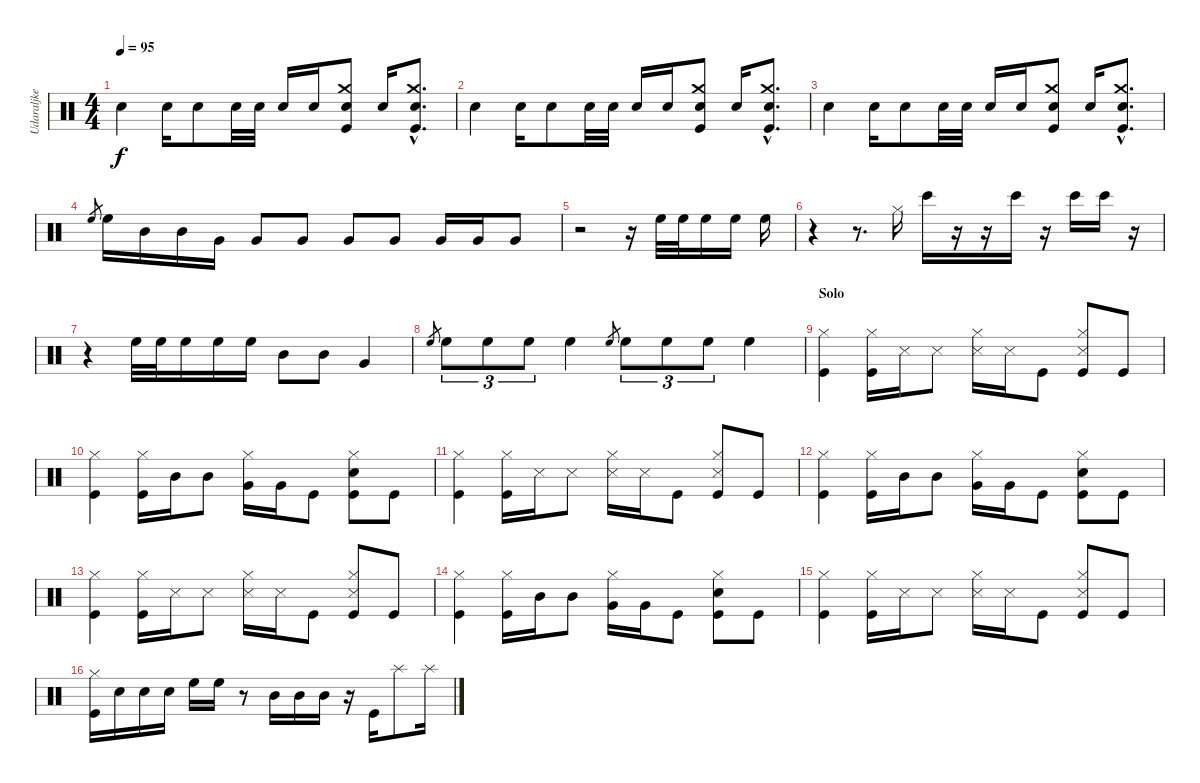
\track ("Udaraljke" "Udaraljke") {instrument percussion}
\staff {score}
\articulation defaults
\ts (4 4)
\tempo 95
\clef neutral
\ks c "Snare (hit) 2".4{dy f} "Snare (hit) 2".16 "Snare (hit) 2".8 "Snare (hit) 2".32 "Snare (hit) 2".32 "Snare (hit) 2".16 "Snare (hit) 2".16
("Crash medium (hit)" "Snare (hit) 2" "Kick (hit)").8 "Snare (hit) 2".16 ("Crash medium (hit)"{hac} "Snare (hit) 2"{hac} "Kick (hit)"{hac}).8{d} |
"Snare (hit) 2".4 "Snare (hit) 2".16 "Snare (hit) 2".8 "Snare (hit) 2".32 "Snare (hit) 2".32 "Snare (hit) 2".16 "Snare (hit) 2".16 ("Crash medium (hit)" "Snare (hit) 2" "Kick (hit)").8 "Snare (hit) 2".16 ("Crash medium (hit)"{hac} "Snare (hit) 2"{hac} "Kick (hit)"{hac}).8{d} |
"Snare (hit) 2".4 "Snare (hit) 2".16 "Snare (hit) 2".8 "Snare (hit) 2".32 "Snare (hit) 2".32 "Snare (hit) 2".16 "Snare (hit) 2".16 ("Crash medium (hit)" "Snare (hit) 2" "Kick (hit)").8 "Snare (hit) 2".16 ("Crash medium (hit)"{hac} "Snare (hit) 2"{hac} "Kick (hit)"{hac}).8{d} |
"High Floor Tom (hit)".8{gr} "High Floor Tom (hit)".16 "Mid Tom (hit)".16 "Mid Tom (hit)".16 "Very Low Tom (hit)".16 "Very Low Tom (hit)".8 "Very Low Tom (hit)".8 "Very Low Tom (hit)".8 "Very Low Tom (hit)".8 "Very Low Tom (hit)".16 "Very Low Tom (hit)".16 "Very Low Tom (hit)".8 |
r.2 r.16 "High Floor Tom (hit)".32 "High Floor Tom (hit)".32 "High Floor Tom (hit)".16 "High Floor Tom (hit)".16 "High Floor Tom (hit)".16 |
r.4 r.8{d} "Hi-Hat (closed)".16 "Bongo High (hit)".16 r.16 r.16 "Bongo High (hit)".16 r.16 "Bongo High (hit)".16 "Bongo High (hit)".16 r.16 |
r.4 "High Floor Tom (hit)".32 "High Floor Tom (hit)".32 "High Floor Tom (hit)".16 "High Floor Tom (hit)".16 "High Floor Tom (hit)".16 "Mid Tom (hit)".8 "Mid Tom (hit)".8 "Very Low Tom (hit)".4 |
"High Floor Tom (hit)".8{gr} "High Floor Tom (hit)".8{tu (3 2)} "High Floor Tom (hit)".8{tu (3 2)} "High Floor Tom (hit)".8{tu (3 2)} "High Floor Tom (hit)".4 "High Floor Tom (hit)".8{gr} "High Floor Tom (hit)".8{tu (3 2)} "High Floor Tom (hit)".8{tu (3 2)} "High Floor Tom (hit)".8{tu (3 2)} "High Floor Tom (hit)".4 |
\section ("" "Solo")
("Hi-Hat (closed)" "Kick (hit)").4{volume 8} ("Hi-Hat (closed)" "Kick (hit)").16 "Snare (side stick) 3".16 "Snare (side stick) 3".8 ("Hi-Hat (closed)" "Snare (side stick) 3").16 "Snare (side stick) 3".16 "Kick (hit)".8 ("Hi-Hat (closed)" "Snare (side stick) 3" "Kick (hit)").8 "Kick (hit)".8 |
\section ("" "")
("Hi-Hat (closed)" "Kick (hit)").4 ("Hi-Hat (closed)" "Kick (hit)").16 "Mid Tom (hit)".16 "Mid Tom (hit)".8 ("Hi-Hat (closed)" "Very Low Tom (hit)").16 "Very Low Tom (hit)".16 "Kick (hit)".8 ("Hi-Hat (closed)" "Snare (hit) 2" "Kick (hit)").8 "Kick (hit)".8 |
("Hi-Hat (closed)" "Kick (hit)").4{volume 8} ("Hi-Hat (closed)" "Kick (hit)").16 "Snare (side stick) 3".16 "Snare (side stick) 3".8 ("Hi-Hat (closed)" "Snare (side stick) 3").16 "Snare (side stick) 3".16 "Kick (hit)".8 ("Hi-Hat (closed)" "Snare (side stick) 3" "Kick (hit)").8 "Kick (hit)".8 |
("Hi-Hat (closed)" "Kick (hit)").4 ("Hi-Hat (closed)" "Kick (hit)").16 "Mid Tom (hit)".16 "Mid Tom (hit)".8 ("Hi-Hat (closed)" "Very Low Tom (hit)").16 "Very Low Tom (hit)".16 "Kick (hit)".8 ("Hi-Hat (closed)" "Snare (hit) 2" "Kick (hit)").8 "Kick (hit)".8 |
("Hi-Hat (closed)" "Kick (hit)").4{volume 8} ("Hi-Hat (closed)" "Kick (hit)").16 "Snare (side stick) 3".16 "Snare (side stick) 3".8 ("Hi-Hat (closed)" "Snare (side stick) 3").16 "Snare (side stick) 3".16 "Kick (hit)".8 ("Hi-Hat (closed)" "Snare (side stick) 3" "Kick (hit)").8 "Kick (hit)".8 |
("Hi-Hat (closed)" "Kick (hit)").4 ("Hi-Hat (closed)" "Kick (hit)").16 "Mid Tom (hit)".16 "Mid Tom (hit)".8 ("Hi-Hat (closed)" "Very Low Tom (hit)").16 "Very Low Tom (hit)".16 "Kick (hit)".8 ("Hi-Hat (closed)" "Snare (hit) 2" "Kick (hit)").8 "Kick (hit)".8 |
("Hi-Hat (closed)" "Kick (hit)").4{volume 8} ("Hi-Hat (closed)" "Kick (hit)").16 "Snare (side stick) 3".16 "Snare (side stick) 3".8 ("Hi-Hat (closed)" "Snare (side stick) 3").16 "Snare (side stick) 3".16 "Kick (hit)".8 ("Hi-Hat (closed)" "Snare (side stick) 3" "Kick (hit)").8 "Kick (hit)".8 |
("Hi-Hat (closed)" "Kick (hit)").16 "Electric Snare (hit)".16 "Electric Snare (hit)".16 "Electric Snare (hit)".16 "High Floor Tom (hit)".16 "High Floor Tom (hit)".16 r.8 "Mid Tom (hit)".16 "Mid Tom (hit)".16 "Mid Tom (hit)".16 r.16 "Kick (hit)".16 "Splash (hit)".8 "Splash (hit)".16
